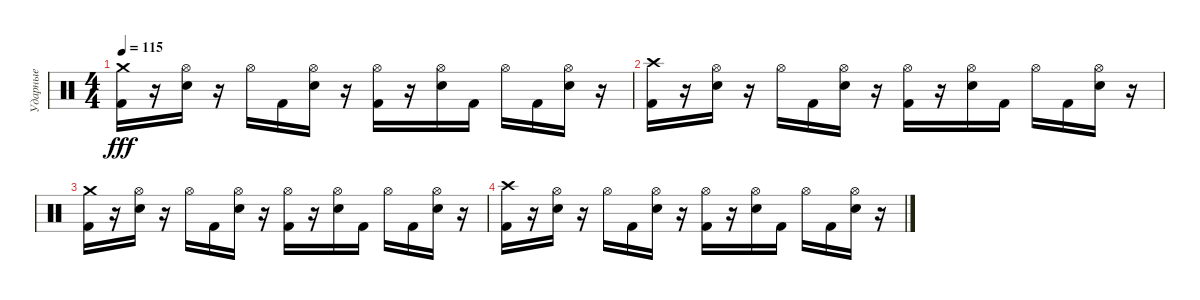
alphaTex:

\track ("Ударные" "Ударные") {instrument percussion}
\staff {score}
\articulation defaults
\ts (4 4)
\tempo 115
\clef neutral
\ks c
("Crash medium (hit)" "Kick (hit) 2").16{dy fff} r.16 ("Electric Snare (hit)" "Hi-Hat (open)").16 r.16 "Hi-Hat (open)".16 "Kick (hit) 2".16 ("Electric Snare (hit)" "Hi-Hat (open)").16 r.16 ("Kick (hit) 2" "Hi-Hat (open)").16 r.16 ("Electric Snare (hit)" "Hi-Hat (open)").16 "Kick (hit) 2".16 "Hi-Hat (open)".16 "Kick (hit) 2".16 ("Electric Snare (hit)" "Hi-Hat (open)").16 r.16 |
("Crash high (hit)" "Kick (hit) 2").16 r.16 ("Electric Snare (hit)" "Hi-Hat (open)").16 r.16 "Hi-Hat (open)".16 "Kick (hit) 2".16 ("Electric Snare (hit)" "Hi-Hat (open)").16 r.16 ("Kick (hit) 2" "Hi-Hat (open)").16 r.16 ("Electric Snare (hit)" "Hi-Hat (open)").16 "Kick (hit) 2".16 "Hi-Hat (open)".16 "Kick (hit) 2".16 ("Electric Snare (hit)" "Hi-Hat (open)").16 r.16 |
("Crash medium (hit)" "Kick (hit) 2").16 r.16 ("Electric Snare (hit)" "Hi-Hat (open)").16 r.16 "Hi-Hat (open)".16 "Kick (hit) 2".16 ("Electric Snare (hit)" "Hi-Hat (open)").16 r.16 ("Kick (hit) 2" "Hi-Hat (open)").16 r.16 ("Electric Snare (hit)" "Hi-Hat (open)").16 "Kick (hit) 2".16 "Hi-Hat (open)".16 "Kick (hit) 2".16 ("Electric Snare (hit)" "Hi-Hat (open)").16 r.16 |
("Crash high (hit)" "Kick (hit) 2").16 r.16 ("Electric Snare (hit)" "Hi-Hat (open)").16 r.16 "Hi-Hat (open)".16 "Kick (hit) 2".16 ("Electric Snare (hit)" "Hi-Hat (open)").16 r.16 ("Kick (hit) 2" "Hi-Hat (open)").16 r.16 ("Electric Snare (hit)" "Hi-Hat (open)").16 "Kick (hit) 2".16 "Hi-Hat (open)".16 "Kick (hit) 2".16 ("Electric Snare (hit)" "Hi-Hat (open)").16 r.16
